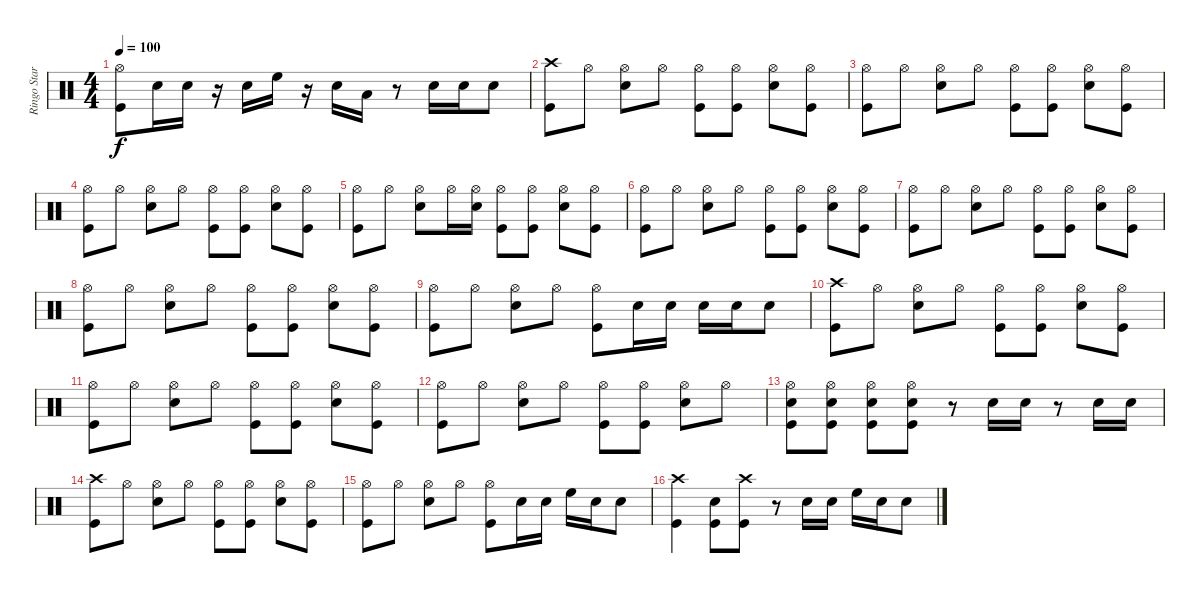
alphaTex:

\track ("Ringo Starr" "Ringo Star") {instrument percussion}
\staff {score}
\articulation defaults
\ts (4 4)
\tempo 100
\clef neutral
\ks c
("Hi-Hat (open)" "Kick (hit)").8{dy f} "Snare (hit) 2".16 "Snare (hit) 2".16 r.16 "Snare (hit) 2".16 "High Floor Tom (hit)".16 r.16 "Snare (hit) 2".16 "Low Floor Tom (hit)".16 r.8 "Snare (hit) 2".16 "Snare (hit) 2".16 "Snare (hit) 2".8 |
("Crash high (hit)" "Kick (hit)").8 "Hi-Hat (open)".8 ("Hi-Hat (open)" "Snare (hit) 2").8 "Hi-Hat (open)".8 ("Hi-Hat (open)" "Kick (hit)").8 ("Hi-Hat (open)" "Kick (hit)").8 ("Hi-Hat (open)" "Snare (hit) 2").8 ("Hi-Hat (open)" "Kick (hit)").8 |
("Hi-Hat (open)" "Kick (hit)").8 "Hi-Hat (open)".8 ("Hi-Hat (open)" "Snare (hit) 2").8 "Hi-Hat (open)".8 ("Hi-Hat (open)" "Kick (hit)").8 ("Hi-Hat (open)" "Kick (hit)").8 ("Hi-Hat (open)" "Snare (hit) 2").8 ("Hi-Hat (open)" "Kick (hit)").8 |
("Hi-Hat (open)" "Kick (hit)").8 "Hi-Hat (open)".8 ("Hi-Hat (open)" "Snare (hit) 2").8 "Hi-Hat (open)".8 ("Hi-Hat (open)" "Kick (hit)").8 ("Hi-Hat (open)" "Kick (hit)").8 ("Hi-Hat (open)" "Snare (hit) 2").8 ("Hi-Hat (open)" "Kick (hit)").8 |
("Hi-Hat (open)" "Kick (hit)").8 "Hi-Hat (open)".8 ("Hi-Hat (open)" "Snare (hit) 2").8 "Hi-Hat (open)".16 ("Hi-Hat (open)" "Snare (hit) 2").16 ("Hi-Hat (open)" "Kick (hit)").8 ("Hi-Hat (open)" "Kick (hit)").8 ("Hi-Hat (open)" "Snare (hit) 2").8 ("Hi-Hat (open)" "Kick (hit)").8 |
("Hi-Hat (open)" "Kick (hit)").8 "Hi-Hat (open)".8 ("Hi-Hat (open)" "Snare (hit) 2").8 "Hi-Hat (open)".8 ("Hi-Hat (open)" "Kick (hit)").8 ("Hi-Hat (open)" "Kick (hit)").8 ("Hi-Hat (open)" "Snare (hit) 2").8 ("Hi-Hat (open)" "Kick (hit)").8 |
("Hi-Hat (open)" "Kick (hit)").8 "Hi-Hat (open)".8 ("Hi-Hat (open)" "Snare (hit) 2").8 "Hi-Hat (open)".8 ("Hi-Hat (open)" "Kick (hit)").8 ("Hi-Hat (open)" "Kick (hit)").8 ("Hi-Hat (open)" "Snare (hit) 2").8 ("Hi-Hat (open)" "Kick (hit)").8 |
("Hi-Hat (open)" "Kick (hit)").8 "Hi-Hat (open)".8 ("Hi-Hat (open)" "Snare (hit) 2").8 "Hi-Hat (open)".8 ("Hi-Hat (open)" "Kick (hit)").8 ("Hi-Hat (open)" "Kick (hit)").8 ("Hi-Hat (open)" "Snare (hit) 2").8 ("Hi-Hat (open)" "Kick (hit)").8 |
("Hi-Hat (open)" "Kick (hit)").8 "Hi-Hat (open)".8 ("Hi-Hat (open)" "Snare (hit) 2").8 "Hi-Hat (open)".8 ("Hi-Hat (open)" "Kick (hit)").8 "Snare (hit) 2".16 "Snare (hit) 2".16 "Snare (hit) 2".16 "Snare (hit) 2".16 "Snare (hit) 2".8 |
("Crash high (hit)" "Kick (hit)").8 "Hi-Hat (open)".8 ("Hi-Hat (open)" "Snare (hit) 2").8 "Hi-Hat (open)".8 ("Hi-Hat (open)" "Kick (hit)").8 ("Hi-Hat (open)" "Kick (hit)").8 ("Hi-Hat (open)" "Snare (hit) 2").8 ("Hi-Hat (open)" "Kick (hit)").8 |
("Hi-Hat (open)" "Kick (hit)").8 "Hi-Hat (open)".8 ("Hi-Hat (open)" "Snare (hit) 2").8 "Hi-Hat (open)".8 ("Hi-Hat (open)" "Kick (hit)").8 ("Hi-Hat (open)" "Kick (hit)").8 ("Hi-Hat (open)" "Snare (hit) 2").8 ("Hi-Hat (open)" "Kick (hit)").8 |
("Hi-Hat (open)" "Kick (hit)").8 "Hi-Hat (open)".8 ("Hi-Hat (open)" "Snare (hit) 2").8 "Hi-Hat (open)".8 ("Hi-Hat (open)" "Kick (hit)").8 ("Hi-Hat (open)" "Kick (hit)").8 ("Hi-Hat (open)" "Snare (hit) 2").8 "Hi-Hat (open)".8 |
("Hi-Hat (open)" "Snare (hit) 2" "Kick (hit)").8 ("Hi-Hat (open)" "Snare (hit) 2" "Kick (hit)").8 ("Hi-Hat (open)" "Snare (hit) 2" "Kick (hit)").8 ("Hi-Hat (open)" "Snare (hit) 2" "Kick (hit)").8 r.8 "Snare (hit) 2".16 "Snare (hit) 2".16 r.8 "Snare (hit) 2".16 "Snare (hit) 2".16 |
("Crash high (hit)" "Kick (hit)").8 "Hi-Hat (open)".8 ("Hi-Hat (open)" "Snare (hit) 2").8 "Hi-Hat (open)".8 ("Hi-Hat (open)" "Kick (hit)").8 ("Hi-Hat (open)" "Kick (hit)").8 ("Hi-Hat (open)" "Snare (hit) 2").8 ("Hi-Hat (open)" "Kick (hit)").8 |
("Hi-Hat (open)" "Kick (hit)").8 "Hi-Hat (open)".8 ("Hi-Hat (open)" "Snare (hit) 2").8 "Hi-Hat (open)".8 ("Hi-Hat (open)" "Kick (hit)").8 "Snare (hit) 2".16 "Snare (hit) 2".16 "High Floor Tom (hit)".16 "Snare (hit) 2".16 "Snare (hit) 2".8 |
("Crash high (hit)" "Kick (hit)").4 ("Snare (hit) 2" "Kick (hit)").8 ("Crash high (hit)" "Kick (hit)").8 r.8 "Snare (hit) 2".16 "Snare (hit) 2".16 "High Floor Tom (hit)".16 "Snare (hit) 2".16 "Snare (hit) 2".8
